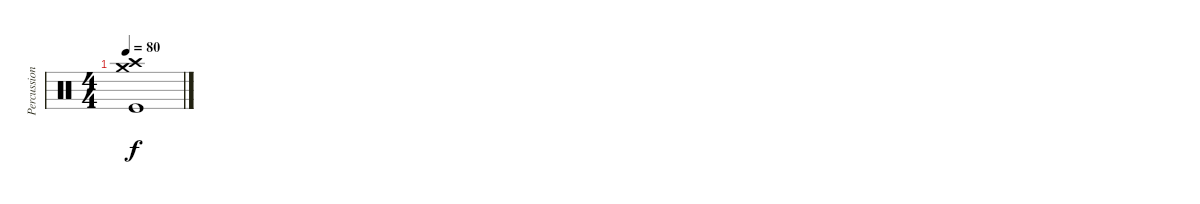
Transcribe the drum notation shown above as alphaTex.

\track ("Percussions" "Percussion") {instrument percussion}
\staff {score}
\articulation defaults
\ts (4 4)
\tempo 80
\clef neutral
\ks c
("Kick (hit)" "Crash high (hit)" "Crash medium (hit)").1{dy f}
